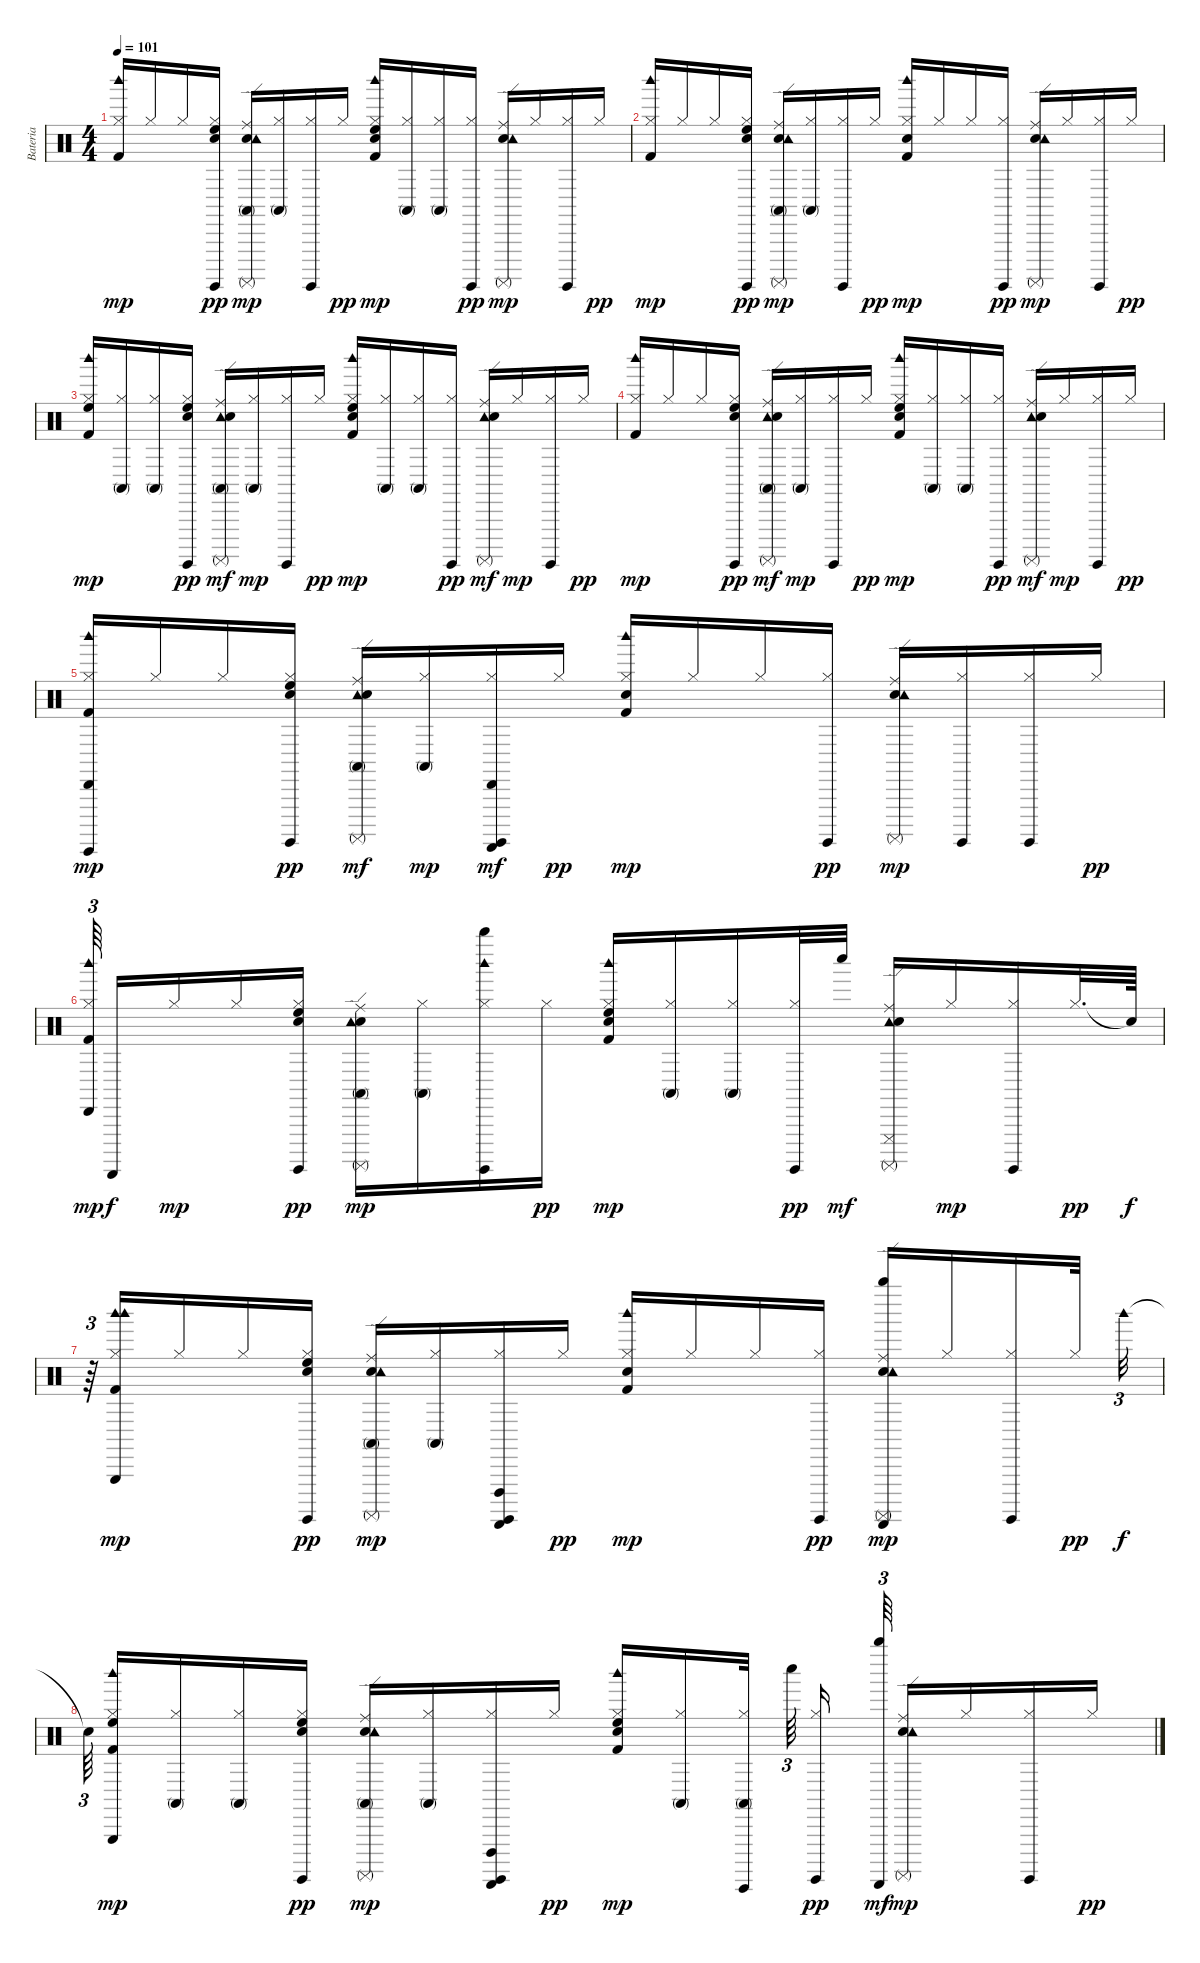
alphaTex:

\track ("Bateria" "Bateria") {instrument percussion}
\staff {score}
\articulation defaults
\ts (4 4)
\tempo 101
\clef neutral
\ks c
("Kick (hit) 2" "Hi-Hat (closed)" "Woodblock high (hit)").16{dy mp} "Hi-Hat (closed)".16 "Hi-Hat (closed)".16 ("High Floor Tom (hit)" "Snare (hit)" "Surdo (hit)" "Hi-Hat (closed)").16{dy pp} ("Conga high (mute)" "Ride (edge)" "Electric Snare (hit)" "Surdo (mute)" "Tambourine (hit)").16{dy mp} ("Conga high (mute)" "Hi-Hat (closed)").16 ("Surdo (hit)" "Hi-Hat (closed)").16 "Hi-Hat (closed)".16{dy pp} ("High Floor Tom (hit)" "Snare (hit)" "Kick (hit) 2" "Hi-Hat (closed)" "Woodblock high (hit)").16{dy mp} ("Conga high (mute)" "Hi-Hat (closed)").16 ("Conga high (mute)" "Hi-Hat (closed)").16 ("Surdo (hit)" "Hi-Hat (closed)").16{dy pp} ("Ride (edge)" "Electric Snare (hit)" "Surdo (mute)" "Tambourine (hit)").16{dy mp} "Hi-Hat (closed)".16 ("Surdo (hit)" "Hi-Hat (closed)").16 "Hi-Hat (closed)".16{dy pp} |
("Kick (hit) 2" "Hi-Hat (closed)" "Woodblock high (hit)").16{dy mp} "Hi-Hat (closed)".16 "Hi-Hat (closed)".16 ("High Floor Tom (hit)" "Snare (hit)" "Surdo (hit)" "Hi-Hat (closed)").16{dy pp} ("Conga high (mute)" "Ride (edge)" "Electric Snare (hit)" "Surdo (mute)" "Tambourine (hit)").16{dy mp} ("Conga high (mute)" "Hi-Hat (closed)").16 ("Surdo (hit)" "Hi-Hat (closed)").16 "Hi-Hat (closed)".16{dy pp} ("Snare (hit)" "Kick (hit) 2" "Hi-Hat (closed)" "Woodblock high (hit)").16{dy mp} "Hi-Hat (closed)".16 "Hi-Hat (closed)".16 ("Surdo (hit)" "Hi-Hat (closed)").16{dy pp} ("Ride (edge)" "Electric Snare (hit)" "Surdo (mute)" "Tambourine (hit)").16{dy mp} "Hi-Hat (closed)".16 ("Surdo (hit)" "Hi-Hat (closed)").16 "Hi-Hat (closed)".16{dy pp} |
("High Floor Tom (hit)" "Kick (hit) 2" "Hi-Hat (closed)" "Woodblock high (hit)").16{dy mp} ("Conga high (mute)" "Hi-Hat (closed)").16 ("Conga high (mute)" "Hi-Hat (closed)").16 ("High Floor Tom (hit)" "Snare (hit)" "Surdo (hit)" "Hi-Hat (closed)").16{dy pp} ("Conga high (mute)" "Ride (edge)" "Surdo (mute)" "Tambourine (hit)" "Electric Snare (hit)").16{dy mf} ("Conga high (mute)" "Hi-Hat (closed)").16{dy mp} ("Surdo (hit)" "Hi-Hat (closed)").16 "Hi-Hat (closed)".16{dy pp} ("High Floor Tom (hit)" "Snare (hit)" "Kick (hit) 2" "Hi-Hat (closed)" "Woodblock high (hit)").16{dy mp} ("Conga high (mute)" "Hi-Hat (closed)").16 ("Conga high (mute)" "Hi-Hat (closed)").16 ("Surdo (hit)" "Hi-Hat (closed)").16{dy pp} ("Ride (edge)" "Tambourine (hit)" "Electric Snare (hit)" "Surdo (mute)").16{dy mf} "Hi-Hat (closed)".16{dy mp} ("Surdo (hit)" "Hi-Hat (closed)").16 "Hi-Hat (closed)".16{dy pp} |
("Woodblock high (hit)" "Kick (hit) 2" "Hi-Hat (closed)").16{dy mp} "Hi-Hat (closed)".16 "Hi-Hat (closed)".16 ("High Floor Tom (hit)" "Snare (hit)" "Surdo (hit)" "Hi-Hat (closed)").16{dy pp} ("Conga high (mute)" "Ride (edge)" "Tambourine (hit)" "Electric Snare (hit)" "Surdo (mute)").16{dy mf} ("Conga high (mute)" "Hi-Hat (closed)").16{dy mp} ("Surdo (hit)" "Hi-Hat (closed)").16 "Hi-Hat (closed)".16{dy pp} ("High Floor Tom (hit)" "Snare (hit)" "Hi-Hat (closed)" "Woodblock high (hit)" "Kick (hit) 2").16{dy mp} ("Conga high (mute)" "Hi-Hat (closed)").16 ("Conga high (mute)" "Hi-Hat (closed)").16 ("Surdo (hit)" "Hi-Hat (closed)").16{dy pp} ("Ride (edge)" "Tambourine (hit)" "Electric Snare (hit)" "Surdo (mute)").16{dy mf} "Hi-Hat (closed)".16{dy mp} ("Surdo (hit)" "Hi-Hat (closed)").16 "Hi-Hat (closed)".16{dy pp} |
("Cabasa (hit)" "Guiro (hit)" "Woodblock high (hit)" "Kick (hit) 2" "Hi-Hat (closed)").16{dy mp} "Hi-Hat (closed)".16 "Hi-Hat (closed)".16 ("High Floor Tom (hit)" "Snare (hit)" "Surdo (hit)" "Hi-Hat (closed)").16{dy pp} ("Conga high (mute)" "Ride (edge)" "Surdo (mute)" "Tambourine (hit)" "Electric Snare (hit)").16{dy mf} ("Conga high (mute)" "Hi-Hat (closed)").16{dy mp} ("Surdo (hit)" "Hi-Hat (closed)" "Guiro (scrap-return)" "Cabasa (hit)").16{dy mf} "Hi-Hat (closed)".16{dy pp} ("Snare (hit)" "Kick (hit) 2" "Hi-Hat (closed)" "Woodblock high (hit)").16{dy mp} "Hi-Hat (closed)".16 "Hi-Hat (closed)".16 ("Surdo (hit)" "Hi-Hat (closed)").16{dy pp} ("Ride (edge)" "Electric Snare (hit)" "Surdo (mute)" "Tambourine (hit)").16{dy mp} ("Surdo (hit)" "Hi-Hat (closed)").16 ("Surdo (hit)" "Hi-Hat (closed)").16 "Hi-Hat (closed)".16{dy pp} |
("Cabasa (hit)" "Hi-Hat (closed)" "Woodblock high (hit)" "Kick (hit) 2").64{tu (3 2) dy mp beam splitsecondary} "Guiro (scrap-return)".16{dy f} "Hi-Hat (closed)".16{dy mp} "Hi-Hat (closed)".16 ("High Floor Tom (hit)" "Snare (hit)" "Surdo (hit)" "Hi-Hat (closed)").16{dy pp} ("Conga high (mute)" "Ride (edge)" "Electric Snare (hit)" "Surdo (mute)" "Tambourine (hit)").16{dy mp} ("Conga high (mute)" "Hi-Hat (closed)").16 ("Whistle high (hit)" "Woodblock high (hit)" "Surdo (hit)" "Hi-Hat (closed)").16 "Hi-Hat (closed)".16{dy pp} ("High Floor Tom (hit)" "Snare (hit)" "Kick (hit) 2" "Hi-Hat (closed)" "Woodblock high (hit)").16{dy mp} ("Conga high (mute)" "Hi-Hat (closed)").16 ("Conga high (mute)" "Hi-Hat (closed)").16 ("Surdo (hit)" "Hi-Hat (closed)").32{dy pp} "Whistle low (hit)".32{dy mf} ("Cuica (mute)" "Ride (edge)" "Surdo (mute)" "Tambourine (hit)" "Electric Snare (hit)").16 "Hi-Hat (closed)".16{dy mp} ("Surdo (hit)" "Hi-Hat (closed)").16 "Hi-Hat (closed)".32{d dy pp} "Snare (hit)"{t}.64{dy f} |
r.64{tu (3 2)} ("Woodblock high (hit)" "Kick (hit) 2" "Hi-Hat (closed)" "Woodblock high (hit)" "Triangle (hit)").16{dy mp} "Hi-Hat (closed)".16 "Hi-Hat (closed)".16 ("High Floor Tom (hit)" "Snare (hit)" "Surdo (hit)" "Hi-Hat (closed)").16{dy pp} ("Conga high (mute)" "Ride (edge)" "Electric Snare (hit)" "Surdo (mute)" "Tambourine (hit)").16{dy mp} ("Conga high (mute)" "Hi-Hat (closed)").16 ("Guiro (scrap-return)" "Surdo (hit)" "Hi-Hat (closed)" "Cuica (open)").16 "Hi-Hat (closed)".16{dy pp} ("Snare (hit)" "Woodblock high (hit)" "Kick (hit) 2" "Hi-Hat (closed)").16{dy mp} "Hi-Hat (closed)".16 "Hi-Hat (closed)".16 ("Surdo (hit)" "Hi-Hat (closed)").16{dy pp} ("Whistle high (hit)" "Guiro (scrap-return)" "Ride (edge)" "Electric Snare (hit)" "Surdo (mute)" "Tambourine (hit)").16{dy mp} "Hi-Hat (closed)".16 ("Surdo (hit)" "Hi-Hat (closed)").16 "Hi-Hat (closed)".32{dy pp} "Woodblock high (hit)".32{tu (3 2) dy f} |
"Snare (hit)"{t}.64{tu (3 2) beam splitsecondary} ("Triangle (hit)" "High Floor Tom (hit)" "Kick (hit) 2" "Hi-Hat (closed)" "Woodblock high (hit)").16{dy mp} ("Conga high (mute)" "Hi-Hat (closed)").16 ("Conga high (mute)" "Hi-Hat (closed)").16 ("High Floor Tom (hit)" "Snare (hit)" "Surdo (hit)" "Hi-Hat (closed)").16{dy pp} ("Conga high (mute)" "Ride (edge)" "Electric Snare (hit)" "Surdo (mute)" "Tambourine (hit)").16{dy mp} ("Conga high (mute)" "Hi-Hat (closed)").16 ("Guiro (scrap-return)" "Surdo (hit)" "Hi-Hat (closed)" "Cuica (open)").16 "Hi-Hat (closed)".16{dy pp} ("High Floor Tom (hit)" "Snare (hit)" "Hi-Hat (closed)" "Woodblock high (hit)" "Kick (hit) 2").16{dy mp} ("Conga high (mute)" "Hi-Hat (closed)").16 ("Conga high (mute)" "Hi-Hat (closed)" "Guiro (hit)").32{beam splitsecondary} "Whistle low (hit)".64{tu (3 2) beam splitsecondary} ("Surdo (hit)" "Hi-Hat (closed)").16{dy pp} ("Whistle high (hit)" "Guiro (scrap-return)").64{tu (3 2) dy mf} ("Ride (edge)" "Electric Snare (hit)" "Surdo (mute)" "Tambourine (hit)").16{dy mp} "Hi-Hat (closed)".16 ("Surdo (hit)" "Hi-Hat (closed)").16 "Hi-Hat (closed)".16{dy pp}
